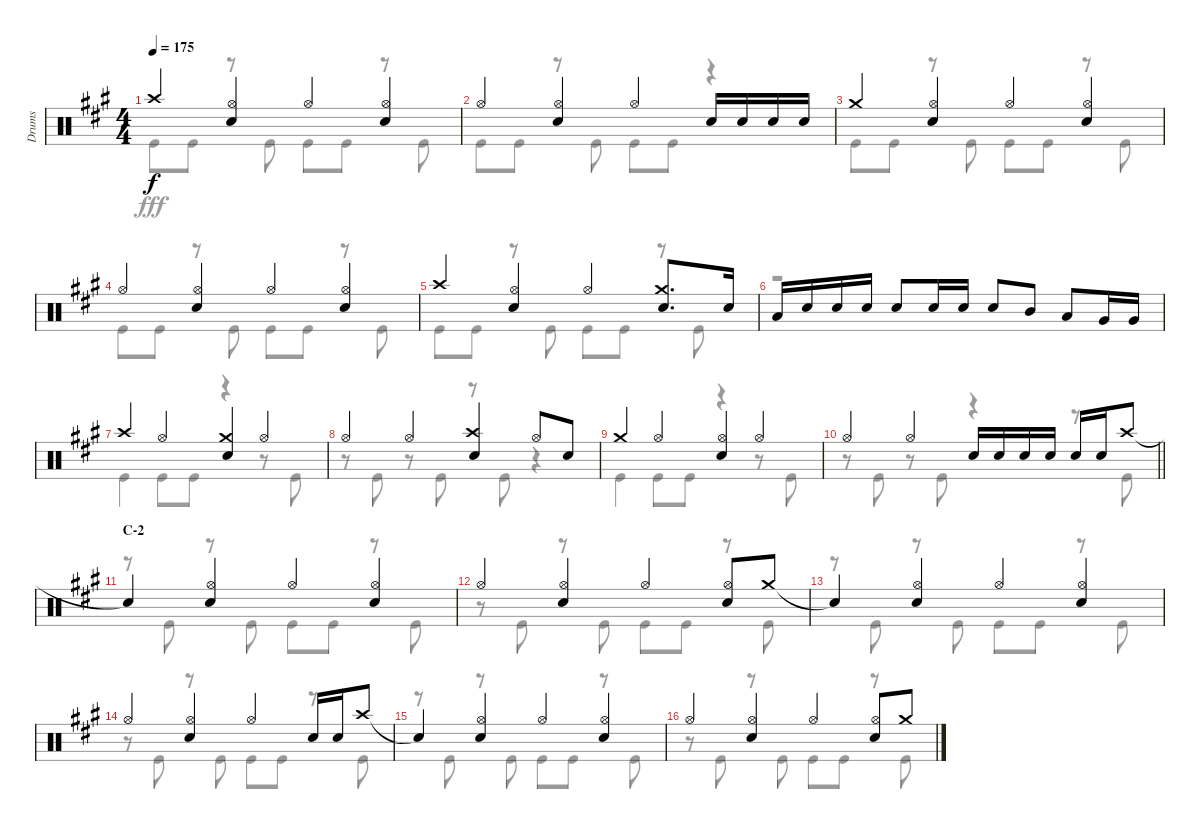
\track ("Drums" "Drums") {instrument percussion}
\staff {score}
\articulation defaults
\voice
\ts (4 4)
\tempo 175
\clef neutral
\ks a "Crash high (hit)".4{dy f}
("Hi-Hat (open)" "Snare (hit) 2").4 "Hi-Hat (open)".4 ("Hi-Hat (open)" "Snare (hit) 2").4 |
"Hi-Hat (open)".4 ("Hi-Hat (open)" "Snare (hit) 2").4 "Hi-Hat (open)".4 "Snare (hit) 2".16 "Snare (hit) 2".16 "Snare (hit) 2".16 "Snare (hit) 2".16 |
"Crash medium (hit)".4 ("Hi-Hat (open)" "Snare (hit) 2").4 "Hi-Hat (open)".4 ("Hi-Hat (open)" "Snare (hit) 2").4 |
"Hi-Hat (open)".4 ("Hi-Hat (open)" "Snare (hit) 2").4 "Hi-Hat (open)".4 ("Hi-Hat (open)" "Snare (hit) 2").4 |
"Crash high (hit)".4 ("Hi-Hat (open)" "Snare (hit) 2").4 "Hi-Hat (open)".4 ("Crash medium (hit)" "Snare (hit) 2").8{d} "Snare (hit) 2".16 |
"Low Tom (hit)".16 "Snare (hit) 2".16 "Snare (hit) 2".16 "Snare (hit) 2".16 "Snare (hit) 2".8 "Snare (hit) 2".16 "Snare (hit) 2".16 "Snare (hit) 2".8 "Mid Tom (hit)".8 "Low Tom (hit)".8 "Very Low Tom (hit)".16 "Very Low Tom (hit)".16 |
"Crash high (hit)".4 "Hi-Hat (open)".4 ("Crash medium (hit)" "Snare (hit) 2").4 "Hi-Hat (open)".4 |
"Hi-Hat (open)".4 "Hi-Hat (open)".4 ("Crash high (hit)" "Snare (hit) 2").4 "Hi-Hat (open)".8 "Snare (hit) 2".8 |
"Crash medium (hit)".4 "Hi-Hat (open)".4 ("Hi-Hat (open)" "Snare (hit) 2").4 "Hi-Hat (open)".4 |
\barLineRight lightlight "Hi-Hat (open)".4 "Hi-Hat (open)".4 "Snare (hit) 2".16 "Snare (hit) 2".16 "Snare (hit) 2".16 "Snare (hit) 2".16 "Snare (hit) 2".16 "Snare (hit) 2".16 "Crash high (hit)".8
|
\section ("" "C-2")
"Snare (hit)"{t}.4 ("Hi-Hat (open)" "Snare (hit) 2").4 "Hi-Hat (open)".4 ("Hi-Hat (open)" "Snare (hit) 2").4 |
"Hi-Hat (open)".4 ("Hi-Hat (open)" "Snare (hit) 2").4 "Hi-Hat (open)".4 ("Hi-Hat (open)" "Snare (hit) 2").8 "Crash medium (hit)".8 |
"Snare (hit)"{t}.4 ("Hi-Hat (open)" "Snare (hit) 2").4 "Hi-Hat (open)".4 ("Hi-Hat (open)" "Snare (hit) 2").4 |
"Hi-Hat (open)".4 ("Hi-Hat (open)" "Snare (hit) 2").4 "Hi-Hat (open)".4 "Snare (hit) 2".16 "Snare (hit) 2".16 "Crash high (hit)".8 |
"Snare (hit)"{t}.4 ("Hi-Hat (open)" "Snare (hit) 2").4 "Hi-Hat (open)".4 ("Hi-Hat (open)" "Snare (hit) 2").4 |
"Hi-Hat (open)".4 ("Hi-Hat (open)" "Snare (hit) 2").4 "Hi-Hat (open)".4 ("Hi-Hat (open)" "Snare (hit) 2").8 "Crash medium (hit)".8
\voice
\clef neutral
\ottava regular
\simile none
\ks a "Kick (hit)".8{dy fff} "Kick (hit)".8
r.8 "Kick (hit)".8 "Kick (hit)".8 "Kick (hit)".8 r.8 "Kick (hit)".8 |
"Kick (hit)".8 "Kick (hit)".8 r.8 "Kick (hit)".8 "Kick (hit)".8 "Kick (hit)".8 r.4 |
"Kick (hit)".8 "Kick (hit)".8 r.8 "Kick (hit)".8 "Kick (hit)".8 "Kick (hit)".8 r.8 "Kick (hit)".8 |
"Kick (hit)".8 "Kick (hit)".8 r.8 "Kick (hit)".8 "Kick (hit)".8 "Kick (hit)".8 r.8 "Kick (hit)".8 |
"Kick (hit)".8 "Kick (hit)".8 r.8 "Kick (hit)".8 "Kick (hit)".8 "Kick (hit)".8 r.8 "Kick (hit)".8 |
r.1 |
"Kick (hit)".4 "Kick (hit)".8 "Kick (hit)".8 r.4 r.8 "Kick (hit)".8 |
r.8 "Kick (hit)".8 r.8 "Kick (hit)".8 r.8 "Kick (hit)".8 r.4 |
"Kick (hit)".4 "Kick (hit)".8 "Kick (hit)".8 r.4 r.8 "Kick (hit)".8 |
\barLineRight lightlight
r.8 "Kick (hit)".8 r.8 "Kick (hit)".8 r.4 r.8 "Kick (hit)".8 |
r.8 "Kick (hit)".8 r.8 "Kick (hit)".8 "Kick (hit)".8 "Kick (hit)".8 r.8 "Kick (hit)".8 |
r.8 "Kick (hit)".8 r.8 "Kick (hit)".8 "Kick (hit)".8 "Kick (hit)".8 r.8 "Kick (hit)".8 |
r.8 "Kick (hit)".8 r.8 "Kick (hit)".8 "Kick (hit)".8 "Kick (hit)".8 r.8 "Kick (hit)".8 |
r.8 "Kick (hit)".8 r.8 "Kick (hit)".8 "Kick (hit)".8 "Kick (hit)".8 r.8 "Kick (hit)".8 |
r.8 "Kick (hit)".8 r.8 "Kick (hit)".8 "Kick (hit)".8 "Kick (hit)".8 r.8 "Kick (hit)".8 |
r.8 "Kick (hit)".8 r.8 "Kick (hit)".8 "Kick (hit)".8 "Kick (hit)".8 r.8 "Kick (hit)".8
